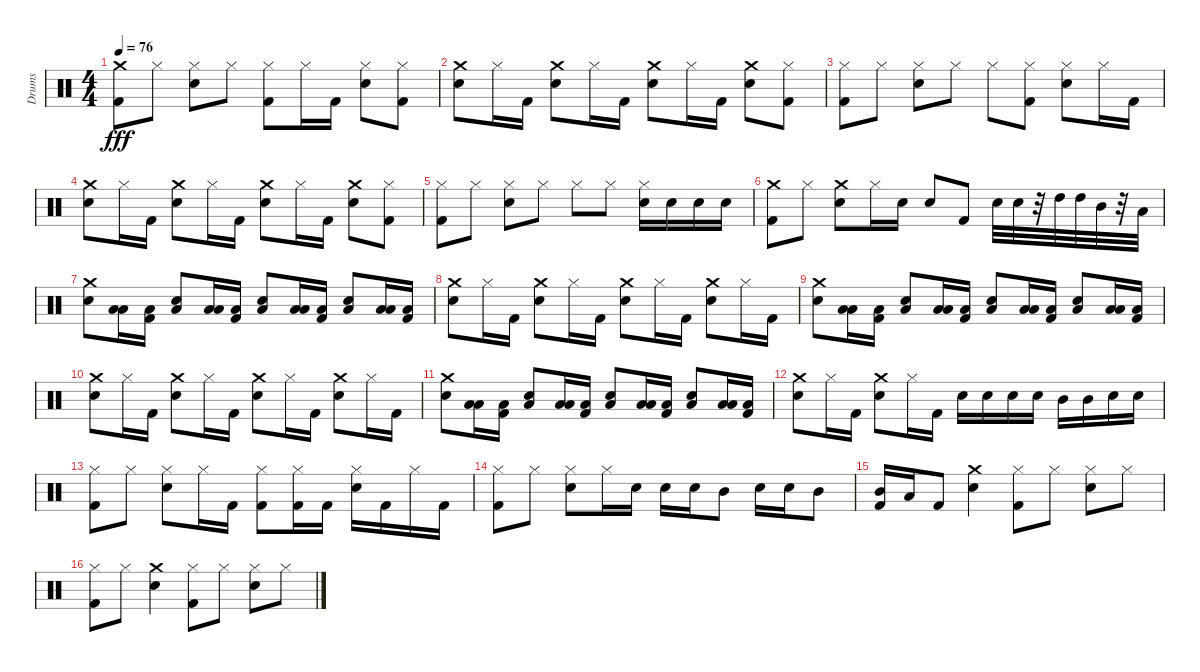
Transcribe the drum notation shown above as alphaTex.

\track ("Drums" "Drums") {instrument percussion}
\staff {score}
\articulation defaults
\ts (4 4)
\tempo 76
\clef neutral
\ks c
("Kick (hit) 2" "Crash medium (hit)").8{dy fff} "Hi-Hat (closed)".8 ("Hi-Hat (closed)" "Snare (hit) 2").8 "Hi-Hat (closed)".8 ("Hi-Hat (closed)" "Kick (hit) 2").8 "Hi-Hat (closed)".16 "Kick (hit) 2".16 ("Hi-Hat (closed)" "Snare (hit) 2").8 ("Hi-Hat (closed)" "Kick (hit) 2").8 |
("Crash medium (hit)" "Snare (hit) 2").8 "Hi-Hat (closed)".16 "Kick (hit) 2".16 ("Snare (hit) 2" "Crash medium (hit)").8 "Hi-Hat (closed)".16 "Kick (hit) 2".16 ("Snare (hit) 2" "Crash medium (hit)").8 "Hi-Hat (closed)".16 "Kick (hit) 2".16 ("Snare (hit) 2" "Crash medium (hit)").8 ("Hi-Hat (closed)" "Kick (hit) 2").8 |
("Kick (hit) 2" "Hi-Hat (closed)").8 "Hi-Hat (closed)".8 ("Hi-Hat (closed)" "Snare (hit) 2").8 "Hi-Hat (closed)".8 "Hi-Hat (closed)".8 ("Hi-Hat (closed)" "Kick (hit) 2").8 ("Hi-Hat (closed)" "Snare (hit) 2").8 "Hi-Hat (closed)".16 "Kick (hit) 2".16 |
("Crash medium (hit)" "Snare (hit) 2").8 "Hi-Hat (closed)".16 "Kick (hit) 2".16 ("Snare (hit) 2" "Crash medium (hit)").8 "Hi-Hat (closed)".16 "Kick (hit) 2".16 ("Snare (hit) 2" "Crash medium (hit)").8 "Hi-Hat (closed)".16 "Kick (hit) 2".16 ("Snare (hit) 2" "Crash medium (hit)").8 ("Hi-Hat (closed)" "Kick (hit) 2").8 |
("Kick (hit) 2" "Hi-Hat (closed)").8 "Hi-Hat (closed)".8 ("Hi-Hat (closed)" "Snare (hit) 2").8 "Hi-Hat (closed)".8 "Hi-Hat (closed)".8 "Hi-Hat (closed)".8 ("Snare (hit) 2" "Hi-Hat (closed)").16 "Snare (hit) 2".16 "Snare (hit) 2".16 "Snare (hit) 2".16 |
("Kick (hit) 2" "Crash medium (hit)").8 "Hi-Hat (closed)".8 ("Snare (hit) 2" "Crash medium (hit)").8 "Hi-Hat (closed)".16 "Snare (hit) 2".16 "Snare (hit) 2".8 "Kick (hit) 2".8 "Snare (hit) 2".32 "Snare (hit) 2".32 r.32 "High Tom (hit)".32 "High Tom (hit)".32 "Mid Tom (hit)".32 r.32 "Low Tom (hit)".32 |
("Snare (hit) 2" "Crash medium (hit)").8 ("Low Floor Tom (hit)" "Low Tom (hit)").16 ("Kick (hit) 2" "Low Floor Tom (hit)").16 ("Snare (hit) 2" "Low Tom (hit)").8 ("Low Tom (hit)" "Low Floor Tom (hit)").16 ("Kick (hit) 2" "Low Floor Tom (hit)").16 ("Snare (hit) 2" "Low Tom (hit)").8 ("Low Tom (hit)" "Low Floor Tom (hit)").16 ("Kick (hit) 2" "Low Floor Tom (hit)").16 ("Snare (hit) 2" "Low Tom (hit)").8 ("Low Tom (hit)" "Low Floor Tom (hit)").16 ("Kick (hit) 2" "Low Floor Tom (hit)").16 |
("Crash medium (hit)" "Snare (hit) 2").8 "Hi-Hat (closed)".16 "Kick (hit) 2".16 ("Snare (hit) 2" "Crash medium (hit)").8 "Hi-Hat (closed)".16 "Kick (hit) 2".16 ("Snare (hit) 2" "Crash medium (hit)").8 "Hi-Hat (closed)".16 "Kick (hit) 2".16 ("Snare (hit) 2" "Crash medium (hit)").8 "Hi-Hat (closed)".16 "Kick (hit) 2".16 |
("Snare (hit) 2" "Crash medium (hit)").8 ("Low Floor Tom (hit)" "Low Tom (hit)").16 ("Kick (hit) 2" "Low Floor Tom (hit)").16 ("Snare (hit) 2" "Low Tom (hit)").8 ("Low Tom (hit)" "Low Floor Tom (hit)").16 ("Kick (hit) 2" "Low Floor Tom (hit)").16 ("Snare (hit) 2" "Low Tom (hit)").8 ("Low Tom (hit)" "Low Floor Tom (hit)").16 ("Kick (hit) 2" "Low Floor Tom (hit)").16 ("Snare (hit) 2" "Low Tom (hit)").8 ("Low Tom (hit)" "Low Floor Tom (hit)").16 ("Kick (hit) 2" "Low Floor Tom (hit)").16 |
("Crash medium (hit)" "Snare (hit) 2").8 "Hi-Hat (closed)".16 "Kick (hit) 2".16 ("Snare (hit) 2" "Crash medium (hit)").8 "Hi-Hat (closed)".16 "Kick (hit) 2".16 ("Snare (hit) 2" "Crash medium (hit)").8 "Hi-Hat (closed)".16 "Kick (hit) 2".16 ("Snare (hit) 2" "Crash medium (hit)").8 "Hi-Hat (closed)".16 "Kick (hit) 2".16 |
("Snare (hit) 2" "Crash medium (hit)").8 ("Low Floor Tom (hit)" "Low Tom (hit)").16 ("Kick (hit) 2" "Low Floor Tom (hit)").16 ("Snare (hit) 2" "Low Tom (hit)").8 ("Low Tom (hit)" "Low Floor Tom (hit)").16 ("Kick (hit) 2" "Low Floor Tom (hit)").16 ("Snare (hit) 2" "Low Tom (hit)").8 ("Low Tom (hit)" "Low Floor Tom (hit)").16 ("Kick (hit) 2" "Low Floor Tom (hit)").16 ("Snare (hit) 2" "Low Tom (hit)").8 ("Low Tom (hit)" "Low Floor Tom (hit)").16 ("Kick (hit) 2" "Low Floor Tom (hit)").16 |
("Crash medium (hit)" "Snare (hit) 2").8 "Hi-Hat (closed)".16 "Kick (hit) 2".16 ("Snare (hit) 2" "Crash medium (hit)").8 "Hi-Hat (closed)".16 "Kick (hit) 2".16 "Snare (hit) 2".16 "Snare (hit) 2".16 "Snare (hit) 2".16 "Snare (hit) 2".16 "Mid Tom (hit)".16 "Mid Tom (hit)".16 "Snare (hit) 2".16 "Snare (hit) 2".16 |
("Kick (hit) 2" "Hi-Hat (closed)").8 "Hi-Hat (closed)".8 ("Snare (hit) 2" "Hi-Hat (closed)").8 "Hi-Hat (closed)".16 "Kick (hit) 2".16 ("Kick (hit) 2" "Hi-Hat (closed)").8 ("Kick (hit) 2" "Hi-Hat (closed)").16 "Kick (hit) 2".16 ("Snare (hit) 2" "Hi-Hat (closed)").16 "Kick (hit) 2".16 "Hi-Hat (closed)".16 "Kick (hit) 2".16 |
("Kick (hit) 2" "Hi-Hat (closed)").8 "Hi-Hat (closed)".8 ("Snare (hit) 2" "Hi-Hat (closed)").8 "Hi-Hat (closed)".16 "Snare (hit) 2".16 "Snare (hit) 2".16 "Snare (hit) 2".16 "Mid Tom (hit)".8 "Snare (hit) 2".16 "Snare (hit) 2".16 "Mid Tom (hit)".8 |
("Mid Tom (hit)" "Kick (hit) 2").16 "Low Tom (hit)".16 "Kick (hit) 2".8 ("Snare (hit) 2" "Crash medium (hit)").4 ("Hi-Hat (closed)" "Kick (hit) 2").8 "Hi-Hat (closed)".8 ("Hi-Hat (closed)" "Snare (hit) 2").8 "Hi-Hat (closed)".8 |
("Hi-Hat (closed)" "Kick (hit) 2").8 "Hi-Hat (closed)".8 ("Snare (hit) 2" "Crash medium (hit)").4 ("Hi-Hat (closed)" "Kick (hit) 2").8 "Hi-Hat (closed)".8 ("Hi-Hat (closed)" "Snare (hit) 2").8 "Hi-Hat (closed)".8
